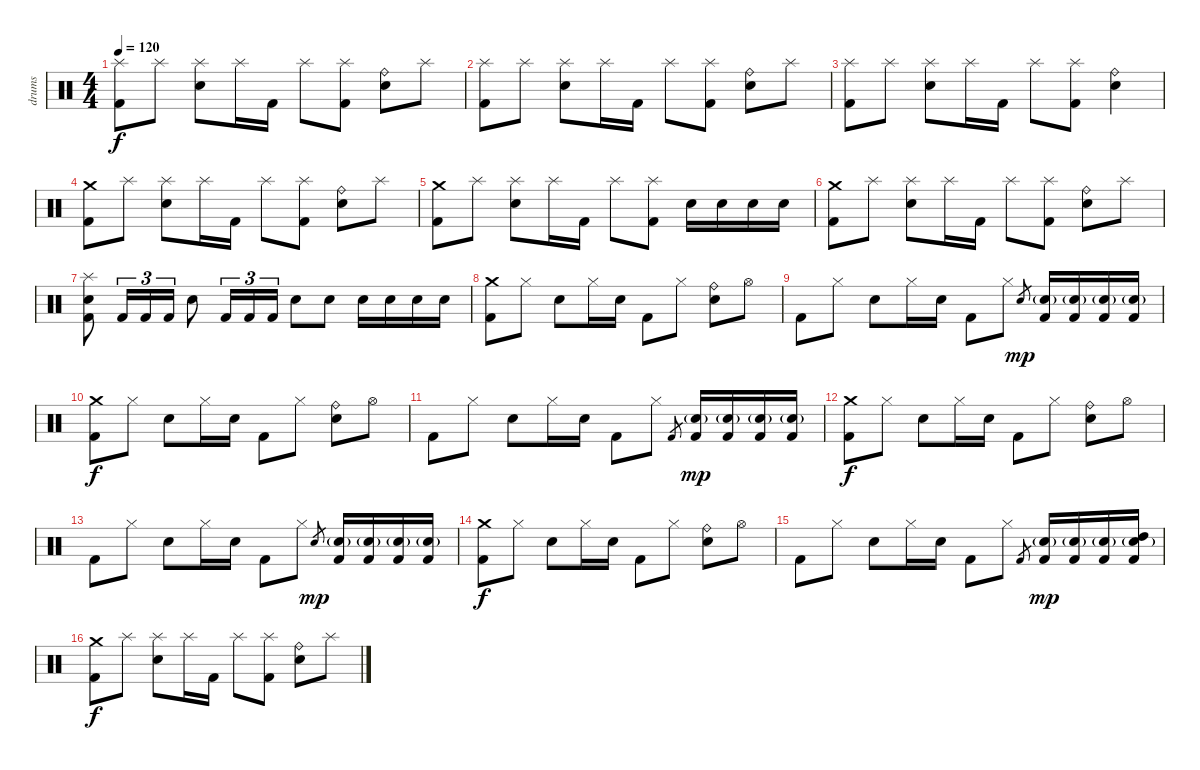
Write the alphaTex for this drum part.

\track ("drums" "drums") {instrument percussion}
\staff {score}
\articulation defaults
\ts (4 4)
\tempo 120
\clef neutral
\ks c
("Splash (hit)" "Kick (hit) 2").8{dy f} "Splash (hit)".8 ("Splash (hit)" "Electric Snare (hit)").8 "Splash (hit)".16 "Kick (hit) 2".16 "Splash (hit)".8 ("Splash (hit)" "Kick (hit) 2").8 ("Ride (bell)" "Electric Snare (hit)").8 "Splash (hit)".8 |
("Splash (hit)" "Kick (hit) 2").8 "Splash (hit)".8 ("Splash (hit)" "Electric Snare (hit)").8 "Splash (hit)".16 "Kick (hit) 2".16 "Splash (hit)".8 ("Splash (hit)" "Kick (hit) 2").8 ("Ride (bell)" "Electric Snare (hit)").8 "Splash (hit)".8 |
("Splash (hit)" "Kick (hit) 2").8 "Splash (hit)".8 ("Splash (hit)" "Electric Snare (hit)").8 "Splash (hit)".16 "Kick (hit) 2".16 "Splash (hit)".8 ("Splash (hit)" "Kick (hit) 2").8 ("Ride (bell)" "Electric Snare (hit)").4 |
("Crash medium (hit)" "Kick (hit) 2").8 "Splash (hit)".8 ("Splash (hit)" "Electric Snare (hit)").8 "Splash (hit)".16 "Kick (hit) 2".16 "Splash (hit)".8 ("Splash (hit)" "Kick (hit) 2").8 ("Ride (bell)" "Electric Snare (hit)").8 "Splash (hit)".8 |
("Crash medium (hit)" "Kick (hit) 2").8 "Splash (hit)".8 ("Splash (hit)" "Electric Snare (hit)").8 "Splash (hit)".16 "Kick (hit) 2".16 "Splash (hit)".8 ("Splash (hit)" "Kick (hit) 2").8 "Electric Snare (hit)".16 "Electric Snare (hit)".16 "Electric Snare (hit)".16 "Electric Snare (hit)".16 |
("Crash medium (hit)" "Kick (hit) 2").8 "Splash (hit)".8 ("Splash (hit)" "Electric Snare (hit)").8 "Splash (hit)".16 "Kick (hit) 2".16 "Splash (hit)".8 ("Splash (hit)" "Kick (hit) 2").8 ("Ride (bell)" "Electric Snare (hit)").8 "Splash (hit)".8 |
("Splash (hit)" "Electric Snare (hit)" "Kick (hit) 2").8 "Kick (hit) 2".16{tu (3 2)} "Kick (hit) 2".16{tu (3 2)} "Kick (hit) 2".16{tu (3 2)} "Electric Snare (hit)".8 "Kick (hit) 2".16{tu (3 2)} "Kick (hit) 2".16{tu (3 2)} "Kick (hit) 2".16{tu (3 2)} "Electric Snare (hit)".8 "Electric Snare (hit)".8 "Electric Snare (hit)".16 "Electric Snare (hit)".16 "Electric Snare (hit)".16 "Electric Snare (hit)".16 |
("Crash medium (hit)" "Kick (hit) 2").8 "Hi-Hat (closed)".8 "Electric Snare (hit)".8 "Hi-Hat (closed)".16 "Electric Snare (hit)".16 "Kick (hit) 2".8 "Hi-Hat (closed)".8 ("Ride (bell)" "Electric Snare (hit)").8 "Hi-Hat (open)".8 |
"Kick (hit) 2".8 "Hi-Hat (closed)".8 "Electric Snare (hit)".8 "Hi-Hat (closed)".16 "Electric Snare (hit)".16 "Kick (hit) 2".8 "Hi-Hat (closed)".8 "Electric Snare (hit)".8{gr dy mp} ("Electric Snare (hit)"{g} "Kick (hit) 2").16 ("Electric Snare (hit)"{g} "Kick (hit) 2").16 ("Electric Snare (hit)"{g} "Kick (hit) 2").16 ("Electric Snare (hit)"{g} "Kick (hit) 2").16 |
("Crash medium (hit)" "Kick (hit) 2").8{dy f} "Hi-Hat (closed)".8 "Electric Snare (hit)".8 "Hi-Hat (closed)".16 "Electric Snare (hit)".16 "Kick (hit) 2".8 "Hi-Hat (closed)".8 ("Ride (bell)" "Electric Snare (hit)").8 "Hi-Hat (open)".8 |
"Kick (hit) 2".8 "Hi-Hat (closed)".8 "Electric Snare (hit)".8 "Hi-Hat (closed)".16 "Electric Snare (hit)".16 "Kick (hit) 2".8 "Hi-Hat (closed)".8 "Kick (hit) 2".8{gr} ("Electric Snare (hit)"{g} "Kick (hit) 2").16{dy mp} ("Electric Snare (hit)"{g} "Kick (hit) 2").16 ("Electric Snare (hit)"{g} "Kick (hit) 2").16 ("Electric Snare (hit)"{g} "Kick (hit) 2").16 |
("Crash medium (hit)" "Kick (hit) 2").8{dy f} "Hi-Hat (closed)".8 "Electric Snare (hit)".8 "Hi-Hat (closed)".16 "Electric Snare (hit)".16 "Kick (hit) 2".8 "Hi-Hat (closed)".8 ("Ride (bell)" "Electric Snare (hit)").8 "Hi-Hat (open)".8 |
"Kick (hit) 2".8 "Hi-Hat (closed)".8 "Electric Snare (hit)".8 "Hi-Hat (closed)".16 "Electric Snare (hit)".16 "Kick (hit) 2".8 "Hi-Hat (closed)".8 "Electric Snare (hit)".8{gr dy mp} ("Electric Snare (hit)"{g} "Kick (hit) 2").16 ("Electric Snare (hit)"{g} "Kick (hit) 2").16 ("Electric Snare (hit)"{g} "Kick (hit) 2").16 ("Electric Snare (hit)"{g} "Kick (hit) 2").16 |
("Crash medium (hit)" "Kick (hit) 2").8{dy f} "Hi-Hat (closed)".8 "Electric Snare (hit)".8 "Hi-Hat (closed)".16 "Electric Snare (hit)".16 "Kick (hit) 2".8 "Hi-Hat (closed)".8 ("Ride (bell)" "Electric Snare (hit)").8 "Hi-Hat (open)".8 |
"Kick (hit) 2".8 "Hi-Hat (closed)".8 "Electric Snare (hit)".8 "Hi-Hat (closed)".16 "Electric Snare (hit)".16 "Kick (hit) 2".8 "Hi-Hat (closed)".8 "Kick (hit) 2".8{gr} ("Electric Snare (hit)"{g} "Kick (hit) 2").16{dy mp} ("Electric Snare (hit)"{g} "Kick (hit) 2").16 ("Electric Snare (hit)"{g} "Kick (hit) 2").16 ("Electric Snare (hit)"{g} "High Tom (hit)" "Kick (hit) 2").16 |
("Crash medium (hit)" "Kick (hit) 2").8{dy f} "Splash (hit)".8 ("Splash (hit)" "Electric Snare (hit)").8 "Splash (hit)".16 "Kick (hit) 2".16 "Splash (hit)".8 ("Splash (hit)" "Kick (hit) 2").8 ("Ride (bell)" "Electric Snare (hit)").8 "Splash (hit)".8
